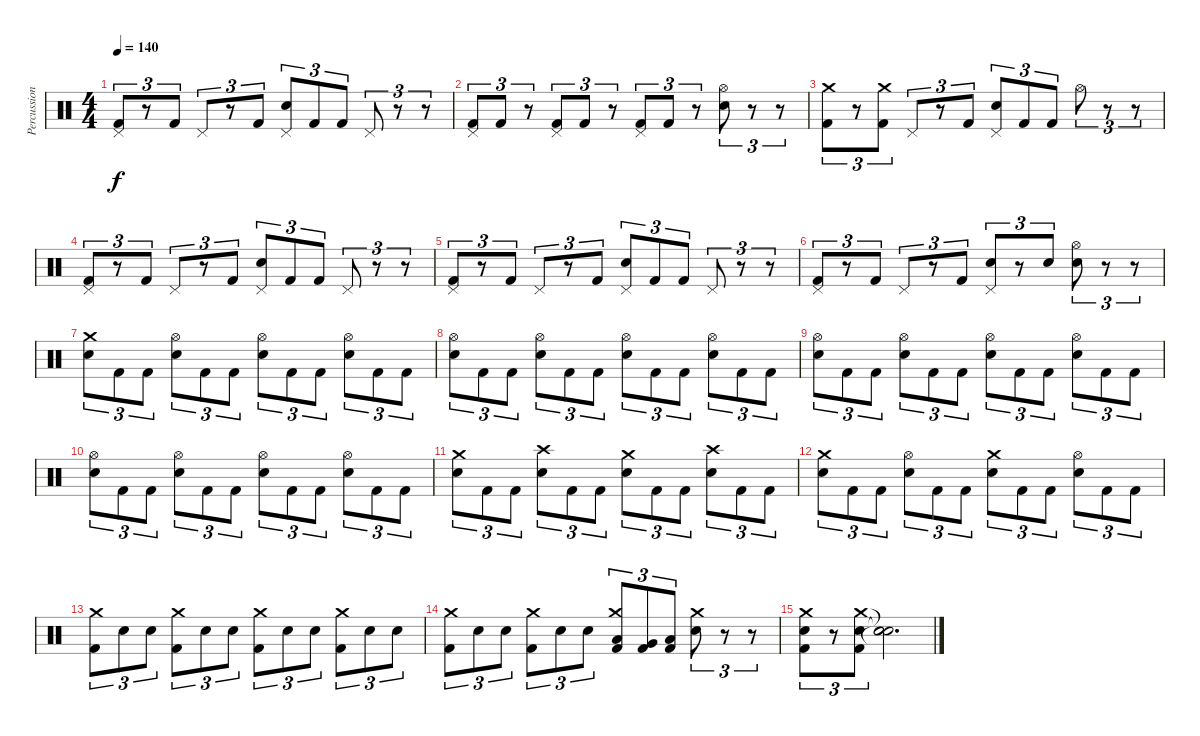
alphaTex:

\track ("Percussion" "Percussion") {instrument percussion}
\staff {score}
\articulation defaults
\ts (4 4)
\tempo 140
\clef neutral
\ks c
("Pedal Hi-Hat (hit)" "Kick (hit) 2").8{tu (3 2) dy f} r.8{tu (3 2)} "Kick (hit) 2".8{tu (3 2)} "Pedal Hi-Hat (hit)".8{tu (3 2)} r.8{tu (3 2)} "Kick (hit) 2".8{tu (3 2)} ("Pedal Hi-Hat (hit)" "Electric Snare (hit)").8{tu (3 2)} "Kick (hit) 2".8{tu (3 2)} "Kick (hit) 2".8{tu (3 2)} "Pedal Hi-Hat (hit)".8{tu (3 2)} r.8{tu (3 2)} r.8{tu (3 2)} |
("Pedal Hi-Hat (hit)" "Kick (hit) 2").8{tu (3 2)} "Kick (hit) 2".8{tu (3 2)} r.8{tu (3 2)} ("Pedal Hi-Hat (hit)" "Kick (hit) 2").8{tu (3 2)} "Kick (hit) 2".8{tu (3 2)} r.8{tu (3 2)} ("Pedal Hi-Hat (hit)" "Kick (hit) 2").8{tu (3 2)} "Kick (hit) 2".8{tu (3 2)} r.8{tu (3 2)} ("Hi-Hat (open)" "Electric Snare (hit)").8{tu (3 2)} r.8{tu (3 2)} r.8{tu (3 2)} |
("Crash medium (hit)" "Kick (hit) 2").8{tu (3 2)} r.8{tu (3 2)} ("Crash medium (hit)" "Kick (hit) 2").8{tu (3 2)} "Pedal Hi-Hat (hit)".8{tu (3 2)} r.8{tu (3 2)} "Kick (hit) 2".8{tu (3 2)} ("Pedal Hi-Hat (hit)" "Electric Snare (hit)").8{tu (3 2)} "Kick (hit) 2".8{tu (3 2)} "Kick (hit) 2".8{tu (3 2)} "Hi-Hat (open)".8{tu (3 2)} r.8{tu (3 2)} r.8{tu (3 2)} |
("Pedal Hi-Hat (hit)" "Kick (hit) 2").8{tu (3 2)} r.8{tu (3 2)} "Kick (hit) 2".8{tu (3 2)} "Pedal Hi-Hat (hit)".8{tu (3 2)} r.8{tu (3 2)} "Kick (hit) 2".8{tu (3 2)} ("Pedal Hi-Hat (hit)" "Electric Snare (hit)").8{tu (3 2)} "Kick (hit) 2".8{tu (3 2)} "Kick (hit) 2".8{tu (3 2)} "Pedal Hi-Hat (hit)".8{tu (3 2)} r.8{tu (3 2)} r.8{tu (3 2)} |
("Pedal Hi-Hat (hit)" "Kick (hit) 2").8{tu (3 2)} r.8{tu (3 2)} "Kick (hit) 2".8{tu (3 2)} "Pedal Hi-Hat (hit)".8{tu (3 2)} r.8{tu (3 2)} "Kick (hit) 2".8{tu (3 2)} ("Pedal Hi-Hat (hit)" "Electric Snare (hit)").8{tu (3 2)} "Kick (hit) 2".8{tu (3 2)} "Kick (hit) 2".8{tu (3 2)} "Pedal Hi-Hat (hit)".8{tu (3 2)} r.8{tu (3 2)} r.8{tu (3 2)} |
("Pedal Hi-Hat (hit)" "Kick (hit) 2").8{tu (3 2)} r.8{tu (3 2)} "Kick (hit) 2".8{tu (3 2)} "Pedal Hi-Hat (hit)".8{tu (3 2)} r.8{tu (3 2)} "Kick (hit) 2".8{tu (3 2)} ("Pedal Hi-Hat (hit)" "Electric Snare (hit)").8{tu (3 2)} r.8{tu (3 2)} "Electric Snare (hit)".8{tu (3 2)} ("Hi-Hat (open)" "Electric Snare (hit)").8{tu (3 2)} r.8{tu (3 2)} r.8{tu (3 2)} |
("Crash medium (hit)" "Electric Snare (hit)").8{tu (3 2)} "Kick (hit) 2".8{tu (3 2)} "Kick (hit) 2".8{tu (3 2)} ("Hi-Hat (open)" "Electric Snare (hit)").8{tu (3 2)} "Kick (hit) 2".8{tu (3 2)} "Kick (hit) 2".8{tu (3 2)} ("Hi-Hat (open)" "Electric Snare (hit)").8{tu (3 2)} "Kick (hit) 2".8{tu (3 2)} "Kick (hit) 2".8{tu (3 2)} ("Hi-Hat (open)" "Electric Snare (hit)").8{tu (3 2)} "Kick (hit) 2".8{tu (3 2)} "Kick (hit) 2".8{tu (3 2)} |
("Hi-Hat (open)" "Electric Snare (hit)").8{tu (3 2)} "Kick (hit) 2".8{tu (3 2)} "Kick (hit) 2".8{tu (3 2)} ("Hi-Hat (open)" "Electric Snare (hit)").8{tu (3 2)} "Kick (hit) 2".8{tu (3 2)} "Kick (hit) 2".8{tu (3 2)} ("Hi-Hat (open)" "Electric Snare (hit)").8{tu (3 2)} "Kick (hit) 2".8{tu (3 2)} "Kick (hit) 2".8{tu (3 2)} ("Hi-Hat (open)" "Electric Snare (hit)").8{tu (3 2)} "Kick (hit) 2".8{tu (3 2)} "Kick (hit) 2".8{tu (3 2)} |
("Hi-Hat (open)" "Electric Snare (hit)").8{tu (3 2)} "Kick (hit) 2".8{tu (3 2)} "Kick (hit) 2".8{tu (3 2)} ("Hi-Hat (open)" "Electric Snare (hit)").8{tu (3 2)} "Kick (hit) 2".8{tu (3 2)} "Kick (hit) 2".8{tu (3 2)} ("Hi-Hat (open)" "Electric Snare (hit)").8{tu (3 2)} "Kick (hit) 2".8{tu (3 2)} "Kick (hit) 2".8{tu (3 2)} ("Hi-Hat (open)" "Electric Snare (hit)").8{tu (3 2)} "Kick (hit) 2".8{tu (3 2)} "Kick (hit) 2".8{tu (3 2)} |
("Hi-Hat (open)" "Electric Snare (hit)").8{tu (3 2)} "Kick (hit) 2".8{tu (3 2)} "Kick (hit) 2".8{tu (3 2)} ("Hi-Hat (open)" "Electric Snare (hit)").8{tu (3 2)} "Kick (hit) 2".8{tu (3 2)} "Kick (hit) 2".8{tu (3 2)} ("Hi-Hat (open)" "Electric Snare (hit)").8{tu (3 2)} "Kick (hit) 2".8{tu (3 2)} "Kick (hit) 2".8{tu (3 2)} ("Hi-Hat (open)" "Electric Snare (hit)").8{tu (3 2)} "Kick (hit) 2".8{tu (3 2)} "Kick (hit) 2".8{tu (3 2)} |
("Crash medium (hit)" "Electric Snare (hit)").8{tu (3 2)} "Kick (hit) 2".8{tu (3 2)} "Kick (hit) 2".8{tu (3 2)} ("Crash high (hit)" "Electric Snare (hit)").8{tu (3 2)} "Kick (hit) 2".8{tu (3 2)} "Kick (hit) 2".8{tu (3 2)} ("Crash medium (hit)" "Electric Snare (hit)").8{tu (3 2)} "Kick (hit) 2".8{tu (3 2)} "Kick (hit) 2".8{tu (3 2)} ("Crash high (hit)" "Electric Snare (hit)").8{tu (3 2)} "Kick (hit) 2".8{tu (3 2)} "Kick (hit) 2".8{tu (3 2)} |
("Crash medium (hit)" "Electric Snare (hit)").8{tu (3 2)} "Kick (hit) 2".8{tu (3 2)} "Kick (hit) 2".8{tu (3 2)} ("Hi-Hat (open)" "Electric Snare (hit)").8{tu (3 2)} "Kick (hit) 2".8{tu (3 2)} "Kick (hit) 2".8{tu (3 2)} ("Crash medium (hit)" "Electric Snare (hit)").8{tu (3 2)} "Kick (hit) 2".8{tu (3 2)} "Kick (hit) 2".8{tu (3 2)} ("Hi-Hat (open)" "Electric Snare (hit)").8{tu (3 2)} "Kick (hit) 2".8{tu (3 2)} "Kick (hit) 2".8{tu (3 2)} |
("Crash medium (hit)" "Kick (hit) 2").8{tu (3 2)} "Electric Snare (hit)".8{tu (3 2)} "Electric Snare (hit)".8{tu (3 2)} ("Crash medium (hit)" "Kick (hit) 2").8{tu (3 2)} "Electric Snare (hit)".8{tu (3 2)} "Electric Snare (hit)".8{tu (3 2)} ("Crash medium (hit)" "Kick (hit) 2").8{tu (3 2)} "Electric Snare (hit)".8{tu (3 2)} "Electric Snare (hit)".8{tu (3 2)} ("Crash medium (hit)" "Kick (hit) 2").8{tu (3 2)} "Electric Snare (hit)".8{tu (3 2)} "Electric Snare (hit)".8{tu (3 2)} |
("Crash medium (hit)" "Kick (hit) 2").8{tu (3 2)} "Electric Snare (hit)".8{tu (3 2)} "Electric Snare (hit)".8{tu (3 2)} ("Crash medium (hit)" "Kick (hit) 2").8{tu (3 2)} "Electric Snare (hit)".8{tu (3 2)} "Electric Snare (hit)".8{tu (3 2)} ("Crash medium (hit)" "Low Tom (hit)" "Kick (hit) 2").8{tu (3 2)} ("Very Low Tom (hit)" "Kick (hit) 2").8{tu (3 2)} ("Low Floor Tom (hit)" "Kick (hit) 2").8{tu (3 2)} ("Crash medium (hit)" "Electric Snare (hit)").8{tu (3 2)} r.8{tu (3 2)} r.8{tu (3 2)} |
("Crash medium (hit)" "Electric Snare (hit)" "Kick (hit) 2").8{tu (3 2)} r.8{tu (3 2)} ("Crash medium (hit)" "Electric Snare (hit)" "Kick (hit) 2").8{tu (3 2)} ("Snare (hit)"{t} "Snare (hit)"{t} "Snare (hit)"{t}).2{d}
